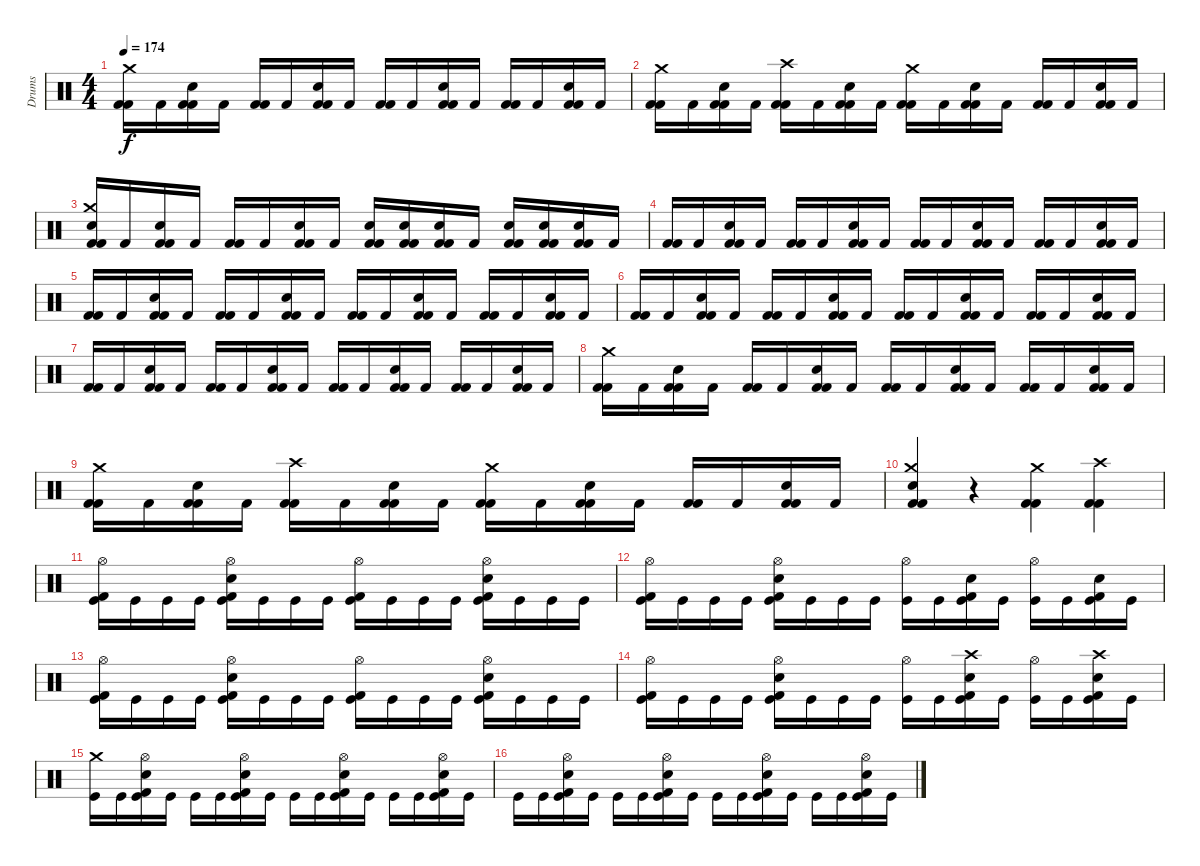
\track ("Drums" "Drums") {instrument percussion}
\staff {score}
\articulation defaults
\ts (4 4)
\tempo 174
\clef neutral
\ks c
("Kick (hit) 2" "Kick (hit) 2" "Crash medium (hit)").16{dy f} "Kick (hit) 2".16 ("Kick (hit) 2" "Kick (hit) 2" "Electric Snare (hit)").16 "Kick (hit) 2".16 ("Kick (hit) 2" "Kick (hit) 2").16 "Kick (hit) 2".16 ("Kick (hit) 2" "Kick (hit) 2" "Electric Snare (hit)").16 "Kick (hit) 2".16 ("Kick (hit) 2" "Kick (hit) 2").16 "Kick (hit) 2".16 ("Kick (hit) 2" "Kick (hit) 2" "Electric Snare (hit)").16 "Kick (hit) 2".16 ("Kick (hit) 2" "Kick (hit) 2").16 "Kick (hit) 2".16 ("Kick (hit) 2" "Kick (hit) 2" "Electric Snare (hit)").16 "Kick (hit) 2".16 |
("Kick (hit) 2" "Kick (hit) 2" "Crash medium (hit)").16 "Kick (hit) 2".16 ("Kick (hit) 2" "Kick (hit) 2" "Electric Snare (hit)").16 "Kick (hit) 2".16 ("Kick (hit) 2" "Kick (hit) 2" "Crash high (hit)").16 "Kick (hit) 2".16 ("Kick (hit) 2" "Kick (hit) 2" "Electric Snare (hit)").16 "Kick (hit) 2".16 ("Kick (hit) 2" "Kick (hit) 2" "Crash medium (hit)").16 "Kick (hit) 2".16 ("Kick (hit) 2" "Kick (hit) 2" "Electric Snare (hit)").16 "Kick (hit) 2".16 ("Kick (hit) 2" "Kick (hit) 2").16 "Kick (hit) 2".16 ("Kick (hit) 2" "Kick (hit) 2" "Electric Snare (hit)").16 "Kick (hit) 2".16 |
("Kick (hit) 2" "Kick (hit) 2" "Electric Snare (hit)" "Crash medium (hit)").16 "Kick (hit) 2".16 ("Kick (hit) 2" "Kick (hit) 2" "Electric Snare (hit)").16 "Kick (hit) 2".16 ("Kick (hit) 2" "Kick (hit) 2").16 "Kick (hit) 2".16 ("Kick (hit) 2" "Kick (hit) 2" "Electric Snare (hit)").16 "Kick (hit) 2".16 ("Kick (hit) 2" "Kick (hit) 2" "Electric Snare (hit)").16 ("Kick (hit) 2" "Kick (hit) 2" "Electric Snare (hit)").16 ("Kick (hit) 2" "Kick (hit) 2" "Electric Snare (hit)").16 "Kick (hit) 2".16 ("Kick (hit) 2" "Kick (hit) 2" "Electric Snare (hit)").16 ("Kick (hit) 2" "Kick (hit) 2" "Electric Snare (hit)").16 ("Kick (hit) 2" "Kick (hit) 2" "Electric Snare (hit)").16 "Kick (hit) 2".16 |
("Kick (hit) 2" "Kick (hit) 2").16 "Kick (hit) 2".16 ("Kick (hit) 2" "Kick (hit) 2" "Electric Snare (hit)").16 "Kick (hit) 2".16 ("Kick (hit) 2" "Kick (hit) 2").16 "Kick (hit) 2".16 ("Kick (hit) 2" "Kick (hit) 2" "Electric Snare (hit)").16 "Kick (hit) 2".16 ("Kick (hit) 2" "Kick (hit) 2").16 "Kick (hit) 2".16 ("Kick (hit) 2" "Kick (hit) 2" "Electric Snare (hit)").16 "Kick (hit) 2".16 ("Kick (hit) 2" "Kick (hit) 2").16 "Kick (hit) 2".16 ("Kick (hit) 2" "Kick (hit) 2" "Electric Snare (hit)").16 "Kick (hit) 2".16 |
("Kick (hit) 2" "Kick (hit) 2").16 "Kick (hit) 2".16 ("Kick (hit) 2" "Kick (hit) 2" "Electric Snare (hit)").16 "Kick (hit) 2".16 ("Kick (hit) 2" "Kick (hit) 2").16 "Kick (hit) 2".16 ("Kick (hit) 2" "Kick (hit) 2" "Electric Snare (hit)").16 "Kick (hit) 2".16 ("Kick (hit) 2" "Kick (hit) 2").16 "Kick (hit) 2".16 ("Kick (hit) 2" "Kick (hit) 2" "Electric Snare (hit)").16 "Kick (hit) 2".16 ("Kick (hit) 2" "Kick (hit) 2").16 "Kick (hit) 2".16 ("Kick (hit) 2" "Kick (hit) 2" "Electric Snare (hit)").16 "Kick (hit) 2".16 |
("Kick (hit) 2" "Kick (hit) 2").16 "Kick (hit) 2".16 ("Kick (hit) 2" "Kick (hit) 2" "Electric Snare (hit)").16 "Kick (hit) 2".16 ("Kick (hit) 2" "Kick (hit) 2").16 "Kick (hit) 2".16 ("Kick (hit) 2" "Kick (hit) 2" "Electric Snare (hit)").16 "Kick (hit) 2".16 ("Kick (hit) 2" "Kick (hit) 2").16 "Kick (hit) 2".16 ("Kick (hit) 2" "Kick (hit) 2" "Electric Snare (hit)").16 "Kick (hit) 2".16 ("Kick (hit) 2" "Kick (hit) 2").16 "Kick (hit) 2".16 ("Kick (hit) 2" "Kick (hit) 2" "Electric Snare (hit)").16 "Kick (hit) 2".16 |
("Kick (hit) 2" "Kick (hit) 2").16 "Kick (hit) 2".16 ("Kick (hit) 2" "Kick (hit) 2" "Electric Snare (hit)").16 "Kick (hit) 2".16 ("Kick (hit) 2" "Kick (hit) 2").16 "Kick (hit) 2".16 ("Kick (hit) 2" "Kick (hit) 2" "Electric Snare (hit)").16 "Kick (hit) 2".16 ("Kick (hit) 2" "Kick (hit) 2").16 "Kick (hit) 2".16 ("Kick (hit) 2" "Kick (hit) 2" "Electric Snare (hit)").16 "Kick (hit) 2".16 ("Kick (hit) 2" "Kick (hit) 2").16 "Kick (hit) 2".16 ("Kick (hit) 2" "Kick (hit) 2" "Electric Snare (hit)").16 "Kick (hit) 2".16 |
("Kick (hit) 2" "Kick (hit) 2" "Crash medium (hit)").16 "Kick (hit) 2".16 ("Kick (hit) 2" "Kick (hit) 2" "Electric Snare (hit)").16 "Kick (hit) 2".16 ("Kick (hit) 2" "Kick (hit) 2").16 "Kick (hit) 2".16 ("Kick (hit) 2" "Kick (hit) 2" "Electric Snare (hit)").16 "Kick (hit) 2".16 ("Kick (hit) 2" "Kick (hit) 2").16 "Kick (hit) 2".16 ("Kick (hit) 2" "Kick (hit) 2" "Electric Snare (hit)").16 "Kick (hit) 2".16 ("Kick (hit) 2" "Kick (hit) 2").16 "Kick (hit) 2".16 ("Kick (hit) 2" "Kick (hit) 2" "Electric Snare (hit)").16 "Kick (hit) 2".16 |
("Kick (hit) 2" "Kick (hit) 2" "Crash medium (hit)").16 "Kick (hit) 2".16 ("Kick (hit) 2" "Kick (hit) 2" "Electric Snare (hit)").16 "Kick (hit) 2".16 ("Kick (hit) 2" "Kick (hit) 2" "Crash high (hit)").16 "Kick (hit) 2".16 ("Kick (hit) 2" "Kick (hit) 2" "Electric Snare (hit)").16 "Kick (hit) 2".16 ("Kick (hit) 2" "Kick (hit) 2" "Crash medium (hit)").16 "Kick (hit) 2".16 ("Kick (hit) 2" "Kick (hit) 2" "Electric Snare (hit)").16 "Kick (hit) 2".16 ("Kick (hit) 2" "Kick (hit) 2").16 "Kick (hit) 2".16 ("Kick (hit) 2" "Kick (hit) 2" "Electric Snare (hit)").16 "Kick (hit) 2".16 |
("Kick (hit) 2" "Kick (hit) 2" "Electric Snare (hit)" "Crash medium (hit)").4 r.4 ("Kick (hit) 2" "Kick (hit) 2" "Crash medium (hit)").4 ("Kick (hit) 2" "Kick (hit) 2" "Crash high (hit)").4 |
("Kick (hit)" "Kick (hit) 2" "Hi-Hat (open)").16 "Kick (hit)".16 "Kick (hit)".16 "Kick (hit)".16 ("Kick (hit)" "Kick (hit) 2" "Electric Snare (hit)" "Hi-Hat (open)").16 "Kick (hit)".16 "Kick (hit)".16 "Kick (hit)".16 ("Kick (hit)" "Kick (hit) 2" "Hi-Hat (open)").16 "Kick (hit)".16 "Kick (hit)".16 "Kick (hit)".16 ("Kick (hit)" "Kick (hit) 2" "Electric Snare (hit)" "Hi-Hat (open)").16 "Kick (hit)".16 "Kick (hit)".16 "Kick (hit)".16 |
("Kick (hit)" "Kick (hit) 2" "Hi-Hat (open)").16 "Kick (hit)".16 "Kick (hit)".16 "Kick (hit)".16 ("Kick (hit)" "Kick (hit) 2" "Electric Snare (hit)" "Hi-Hat (open)").16 "Kick (hit)".16 "Kick (hit)".16 "Kick (hit)".16 ("Kick (hit)" "Hi-Hat (open)").16 "Kick (hit)".16 ("Kick (hit)" "Kick (hit) 2" "Electric Snare (hit)").16 "Kick (hit)".16 ("Kick (hit)" "Hi-Hat (open)").16 "Kick (hit)".16 ("Kick (hit)" "Kick (hit) 2" "Electric Snare (hit)").16 "Kick (hit)".16 |
("Kick (hit)" "Kick (hit) 2" "Hi-Hat (open)").16 "Kick (hit)".16 "Kick (hit)".16 "Kick (hit)".16 ("Kick (hit)" "Kick (hit) 2" "Electric Snare (hit)" "Hi-Hat (open)").16 "Kick (hit)".16 "Kick (hit)".16 "Kick (hit)".16 ("Kick (hit)" "Kick (hit) 2" "Hi-Hat (open)").16 "Kick (hit)".16 "Kick (hit)".16 "Kick (hit)".16 ("Kick (hit)" "Kick (hit) 2" "Electric Snare (hit)" "Hi-Hat (open)").16 "Kick (hit)".16 "Kick (hit)".16 "Kick (hit)".16 |
("Kick (hit)" "Kick (hit) 2" "Hi-Hat (open)").16 "Kick (hit)".16 "Kick (hit)".16 "Kick (hit)".16 ("Kick (hit)" "Kick (hit) 2" "Electric Snare (hit)" "Hi-Hat (open)").16 "Kick (hit)".16 "Kick (hit)".16 "Kick (hit)".16 ("Kick (hit)" "Hi-Hat (open)").16 "Kick (hit)".16 ("Kick (hit)" "Kick (hit) 2" "Electric Snare (hit)" "Crash high (hit)").16 "Kick (hit)".16 ("Kick (hit)" "Hi-Hat (open)").16 "Kick (hit)".16 ("Kick (hit)" "Kick (hit) 2" "Electric Snare (hit)" "Crash high (hit)").16 "Kick (hit)".16 |
("Kick (hit)" "Crash medium (hit)").16 "Kick (hit)".16 ("Kick (hit)" "Kick (hit) 2" "Electric Snare (hit)" "Hi-Hat (open)").16 "Kick (hit)".16 "Kick (hit)".16 "Kick (hit)".16 ("Kick (hit)" "Kick (hit) 2" "Electric Snare (hit)" "Hi-Hat (open)").16 "Kick (hit)".16 "Kick (hit)".16 "Kick (hit)".16 ("Kick (hit)" "Kick (hit) 2" "Electric Snare (hit)" "Hi-Hat (open)").16 "Kick (hit)".16 "Kick (hit)".16 "Kick (hit)".16 ("Kick (hit)" "Kick (hit) 2" "Electric Snare (hit)" "Hi-Hat (open)").16 "Kick (hit)".16 |
"Kick (hit)".16 "Kick (hit)".16 ("Kick (hit)" "Kick (hit) 2" "Electric Snare (hit)" "Hi-Hat (open)").16 "Kick (hit)".16 "Kick (hit)".16 "Kick (hit)".16 ("Kick (hit)" "Kick (hit) 2" "Electric Snare (hit)" "Hi-Hat (open)").16 "Kick (hit)".16 "Kick (hit)".16 "Kick (hit)".16 ("Kick (hit)" "Kick (hit) 2" "Electric Snare (hit)" "Hi-Hat (open)").16 "Kick (hit)".16 "Kick (hit)".16 "Kick (hit)".16 ("Kick (hit)" "Kick (hit) 2" "Electric Snare (hit)" "Hi-Hat (open)").16 "Kick (hit)".16
